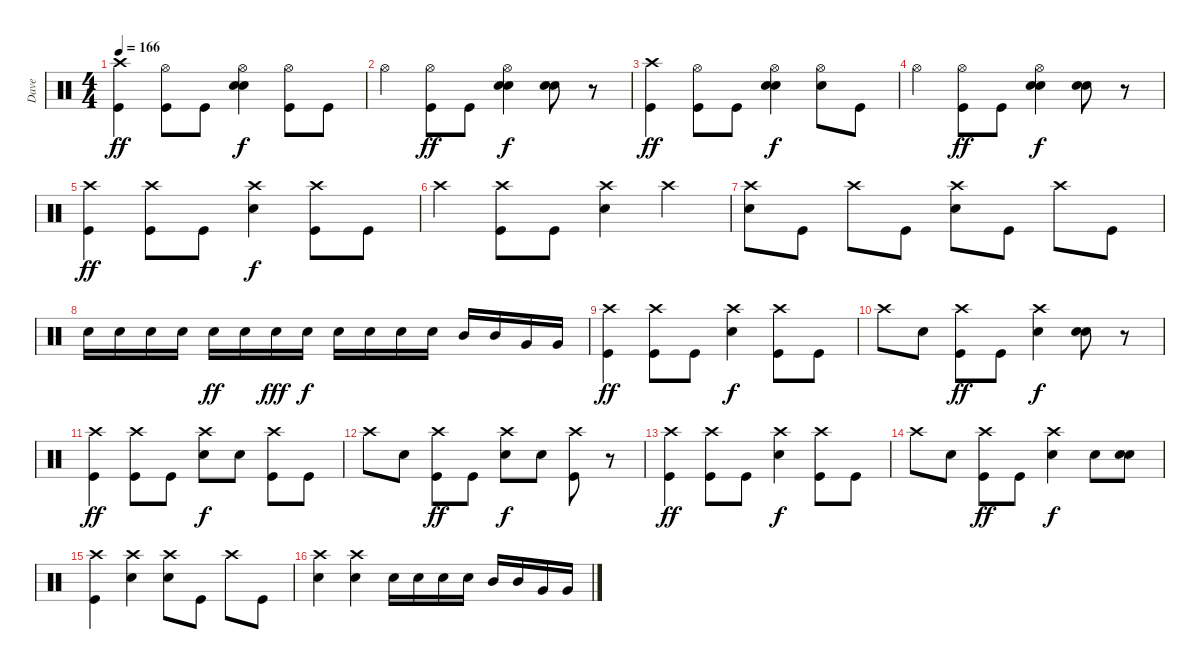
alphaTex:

\track ("Dave" "Dave") {instrument percussion}
\staff {score}
\articulation defaults
\ts (4 4)
\tempo 166
\clef neutral
\ks c
("Crash high (hit)" "Kick (hit)").4{dy ff} ("Hi-Hat (open)" "Kick (hit)").8 "Kick (hit)".8 ("Hi-Hat (open)" "Snare (hit) 2" "Snare (hit) 2").4{dy f} ("Hi-Hat (open)" "Kick (hit)").8 "Kick (hit)".8 |
"Hi-Hat (open)".4 ("Hi-Hat (open)" "Kick (hit)").8{dy ff} "Kick (hit)".8 ("Hi-Hat (open)" "Snare (hit) 2" "Snare (hit) 2").4{dy f} ("Snare (hit) 2" "Snare (hit) 2").8 r.8 |
("Crash high (hit)" "Kick (hit)").4{dy ff} ("Hi-Hat (open)" "Kick (hit)").8 "Kick (hit)".8 ("Hi-Hat (open)" "Snare (hit) 2" "Snare (hit) 2").4{dy f} ("Hi-Hat (open)" "Snare (hit) 2").8 "Kick (hit)".8 |
"Hi-Hat (open)".4 ("Hi-Hat (open)" "Kick (hit)").8{dy ff} "Kick (hit)".8 ("Hi-Hat (open)" "Snare (hit) 2" "Snare (hit) 2").4{dy f} ("Snare (hit) 2" "Snare (hit) 2").8 r.8 |
("Crash high (hit)" "Kick (hit)").4{dy ff} ("Crash high (hit)" "Kick (hit)").8 "Kick (hit)".8 ("Crash high (hit)" "Snare (hit) 2").4{dy f} ("Crash high (hit)" "Kick (hit)").8 "Kick (hit)".8 |
"Crash high (hit)".4 ("Crash high (hit)" "Kick (hit)").8 "Kick (hit)".8 ("Crash high (hit)" "Snare (hit) 2").4 "Crash high (hit)".4 |
("Crash high (hit)" "Snare (hit) 2").8 "Kick (hit)".8 "Crash high (hit)".8 "Kick (hit)".8 ("Crash high (hit)" "Snare (hit) 2").8 "Kick (hit)".8 "Crash high (hit)".8 "Kick (hit)".8 |
"Snare (hit) 2".16 "Snare (hit) 2".16 "Snare (hit) 2".16 "Snare (hit) 2".16 "Snare (hit) 2".16{dy ff} "Snare (hit) 2".16 "Snare (hit) 2".16{dy fff} "Snare (hit) 2".16{dy f} "Snare (hit) 2".16 "Snare (hit) 2".16 "Snare (hit) 2".16 "Snare (hit) 2".16 "Mid Tom (hit)".16 "Mid Tom (hit)".16 "Very Low Tom (hit)".16 "Very Low Tom (hit)".16 |
("Crash high (hit)" "Kick (hit)").4{dy ff} ("Crash high (hit)" "Kick (hit)").8 "Kick (hit)".8 ("Crash high (hit)" "Snare (hit) 2").4{dy f} ("Crash high (hit)" "Kick (hit)").8 "Kick (hit)".8 |
"Crash high (hit)".8 "Snare (hit) 2".8 ("Crash high (hit)" "Kick (hit)").8{dy ff} "Kick (hit)".8 ("Crash high (hit)" "Snare (hit) 2").4{dy f} ("Snare (hit) 2" "Snare (hit) 2").8 r.8 |
("Crash high (hit)" "Kick (hit)").4{dy ff} ("Crash high (hit)" "Kick (hit)").8 "Kick (hit)".8 ("Crash high (hit)" "Snare (hit) 2").8{dy f} "Snare (hit) 2".8 ("Crash high (hit)" "Kick (hit)").8 "Kick (hit)".8 |
"Crash high (hit)".8 "Snare (hit) 2".8 ("Crash high (hit)" "Kick (hit)").8{dy ff} "Kick (hit)".8 ("Crash high (hit)" "Snare (hit) 2").8{dy f} "Snare (hit) 2".8 ("Crash high (hit)" "Kick (hit)").8 r.8 |
("Crash high (hit)" "Kick (hit)").4{dy ff} ("Crash high (hit)" "Kick (hit)").8 "Kick (hit)".8 ("Crash high (hit)" "Snare (hit) 2").4{dy f} ("Crash high (hit)" "Kick (hit)").8 "Kick (hit)".8 |
"Crash high (hit)".8 "Snare (hit) 2".8 ("Crash high (hit)" "Kick (hit)").8{dy ff} "Kick (hit)".8 ("Crash high (hit)" "Snare (hit) 2").4{dy f} "Snare (hit) 2".8 ("Snare (hit) 2" "Snare (hit) 2").8 |
("Crash high (hit)" "Kick (hit)").4 ("Crash high (hit)" "Snare (hit) 2").4 ("Crash high (hit)" "Snare (hit) 2").8 "Kick (hit)".8 "Crash high (hit)".8 "Kick (hit)".8 |
("Crash high (hit)" "Snare (hit) 2").4 ("Crash high (hit)" "Snare (hit) 2").4 "Snare (hit) 2".16 "Snare (hit) 2".16 "Snare (hit) 2".16 "Snare (hit) 2".16 "Mid Tom (hit)".16 "Mid Tom (hit)".16 "Very Low Tom (hit)".16 "Very Low Tom (hit)".16
